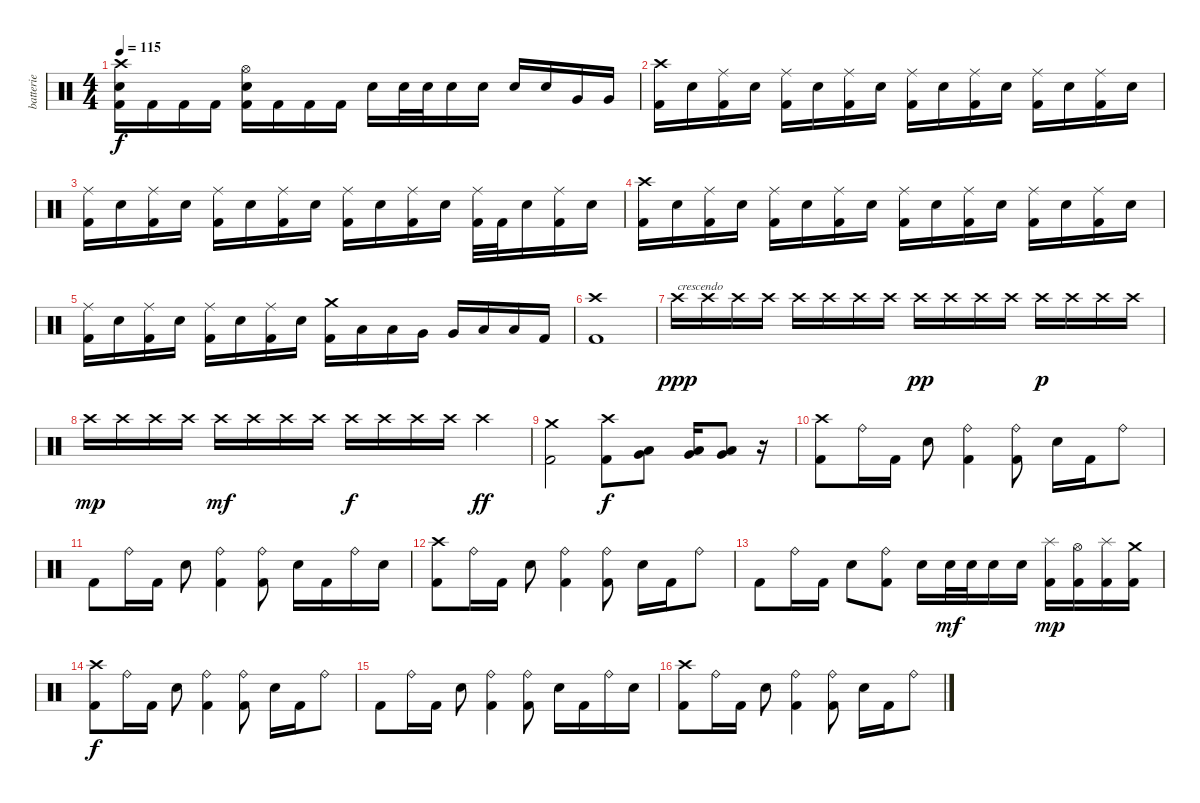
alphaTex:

\track ("batterie" "batterie") {instrument percussion}
\staff {score}
\articulation defaults
\ts (4 4)
\tempo 115
\clef neutral
\ks c
("Crash high (hit)" "Electric Snare (hit)" "Kick (hit) 2").16{dy f} "Kick (hit) 2".16 "Kick (hit) 2".16 "Kick (hit) 2".16 ("Hi-Hat (open)" "Electric Snare (hit)" "Kick (hit) 2").16 "Kick (hit) 2".16 "Kick (hit) 2".16 "Kick (hit) 2".16 "Electric Snare (hit)".16 "Electric Snare (hit)".32 "Electric Snare (hit)".32 "Electric Snare (hit)".16 "Electric Snare (hit)".16 "Electric Snare (hit)".16 "Electric Snare (hit)".16 "Very Low Tom (hit)".16 "Very Low Tom (hit)".16 |
("Crash high (hit)" "Kick (hit) 2").16 "Electric Snare (hit)".16 ("Ride (middle)" "Kick (hit) 2").16 "Electric Snare (hit)".16 ("Ride (middle)" "Kick (hit) 2").16 "Electric Snare (hit)".16 ("Ride (middle)" "Kick (hit) 2").16 "Electric Snare (hit)".16 ("Ride (middle)" "Kick (hit) 2").16 "Electric Snare (hit)".16 ("Ride (middle)" "Kick (hit) 2").16 "Electric Snare (hit)".16 ("Ride (middle)" "Kick (hit) 2").16 "Electric Snare (hit)".16 ("Ride (middle)" "Kick (hit) 2").16 "Electric Snare (hit)".16 |
("Ride (middle)" "Kick (hit) 2").16 "Electric Snare (hit)".16 ("Ride (middle)" "Kick (hit) 2").16 "Electric Snare (hit)".16 ("Ride (middle)" "Kick (hit) 2").16 "Electric Snare (hit)".16 ("Ride (middle)" "Kick (hit) 2").16 "Electric Snare (hit)".16 ("Ride (middle)" "Kick (hit) 2").16 "Electric Snare (hit)".16 ("Ride (middle)" "Kick (hit) 2").16 "Electric Snare (hit)".16 ("Ride (middle)" "Kick (hit) 2").32 "Kick (hit) 2".32 "Electric Snare (hit)".16 ("Ride (middle)" "Kick (hit) 2").16 "Electric Snare (hit)".16 |
("Crash high (hit)" "Kick (hit) 2").16 "Electric Snare (hit)".16 ("Ride (middle)" "Kick (hit) 2").16 "Electric Snare (hit)".16 ("Ride (middle)" "Kick (hit) 2").16 "Electric Snare (hit)".16 ("Ride (middle)" "Kick (hit) 2").16 "Electric Snare (hit)".16 ("Ride (middle)" "Kick (hit) 2").16 "Electric Snare (hit)".16 ("Ride (middle)" "Kick (hit) 2").16 "Electric Snare (hit)".16 ("Ride (middle)" "Kick (hit) 2").16 "Electric Snare (hit)".16 ("Ride (middle)" "Kick (hit) 2").16 "Electric Snare (hit)".16 |
("Ride (middle)" "Kick (hit) 2").16 "Electric Snare (hit)".16 ("Ride (middle)" "Kick (hit) 2").16 "Electric Snare (hit)".16 ("Ride (middle)" "Kick (hit) 2").16 "Electric Snare (hit)".16 ("Ride (middle)" "Kick (hit) 2").16 "Electric Snare (hit)".16 ("Crash medium (hit)" "Kick (hit) 2").16 "Low Tom (hit)".16 "Low Tom (hit)".16 "Very Low Tom (hit)".16 "Very Low Tom (hit)".16 "Low Floor Tom (hit)".16 "Low Floor Tom (hit)".16 "Kick (hit) 2".16 |
("Crash high (hit)" "Kick (hit) 2").1 |
"Crash high (hit)".16{txt "crescendo" dy ppp} "Crash high (hit)".16 "Crash high (hit)".16 "Crash high (hit)".16 "Crash high (hit)".16 "Crash high (hit)".16 "Crash high (hit)".16 "Crash high (hit)".16 "Crash high (hit)".16{dy pp} "Crash high (hit)".16 "Crash high (hit)".16 "Crash high (hit)".16 "Crash high (hit)".16{dy p} "Crash high (hit)".16 "Crash high (hit)".16 "Crash high (hit)".16 |
"Crash high (hit)".16{dy mp} "Crash high (hit)".16 "Crash high (hit)".16 "Crash high (hit)".16 "Crash high (hit)".16{dy mf} "Crash high (hit)".16 "Crash high (hit)".16 "Crash high (hit)".16 "Crash high (hit)".16{dy f} "Crash high (hit)".16 "Crash high (hit)".16 "Crash high (hit)".16 "Crash high (hit)".4{dy ff} |
("Crash medium (hit)" "Kick (hit) 2").2 ("Crash high (hit)" "Kick (hit) 2").8{dy f} ("Low Tom (hit)" "Very Low Tom (hit)").8 ("Very Low Tom (hit)" "Low Floor Tom (hit)").16 ("Very Low Tom (hit)" "Low Floor Tom (hit)").8 r.16 |
("Crash high (hit)" "Kick (hit) 2").8 "Ride (bell)".16 "Kick (hit) 2".16 "Electric Snare (hit)".8 ("Ride (bell)" "Kick (hit) 2").4 ("Ride (bell)" "Kick (hit) 2").8 "Electric Snare (hit)".16 "Kick (hit) 2".16 "Ride (bell)".8 |
"Kick (hit) 2".8 "Ride (bell)".16 "Kick (hit) 2".16 "Electric Snare (hit)".8 ("Ride (bell)" "Kick (hit) 2").4 ("Ride (bell)" "Kick (hit) 2").8 "Electric Snare (hit)".16 "Kick (hit) 2".16 "Ride (bell)".16 "Electric Snare (hit)".16 |
("Crash high (hit)" "Kick (hit) 2").8 "Ride (bell)".16 "Kick (hit) 2".16 "Electric Snare (hit)".8 ("Ride (bell)" "Kick (hit) 2").4 ("Ride (bell)" "Kick (hit) 2").8 "Electric Snare (hit)".16 "Kick (hit) 2".16 "Ride (bell)".8 |
"Kick (hit) 2".8 "Ride (bell)".16 "Kick (hit) 2".16 "Electric Snare (hit)".8 ("Ride (bell)" "Kick (hit) 2").8 "Electric Snare (hit)".16 "Electric Snare (hit)".32{dy mf} "Electric Snare (hit)".32 "Electric Snare (hit)".16 "Electric Snare (hit)".16 ("Splash (hit)" "Kick (hit) 2").16{dy mp} ("Hi-Hat (open)" "Kick (hit) 2").16 ("Splash (hit)" "Kick (hit) 2").16 ("Crash medium (hit)" "Kick (hit) 2").16 |
("Crash high (hit)" "Kick (hit) 2").8{dy f} "Ride (bell)".16 "Kick (hit) 2".16 "Electric Snare (hit)".8 ("Ride (bell)" "Kick (hit) 2").4 ("Ride (bell)" "Kick (hit) 2").8 "Electric Snare (hit)".16 "Kick (hit) 2".16 "Ride (bell)".8 |
"Kick (hit) 2".8 "Ride (bell)".16 "Kick (hit) 2".16 "Electric Snare (hit)".8 ("Ride (bell)" "Kick (hit) 2").4 ("Ride (bell)" "Kick (hit) 2").8 "Electric Snare (hit)".16 "Kick (hit) 2".16 "Ride (bell)".16 "Electric Snare (hit)".16 |
("Crash high (hit)" "Kick (hit) 2").8 "Ride (bell)".16 "Kick (hit) 2".16 "Electric Snare (hit)".8 ("Ride (bell)" "Kick (hit) 2").4 ("Ride (bell)" "Kick (hit) 2").8 "Electric Snare (hit)".16 "Kick (hit) 2".16 "Ride (bell)".8
